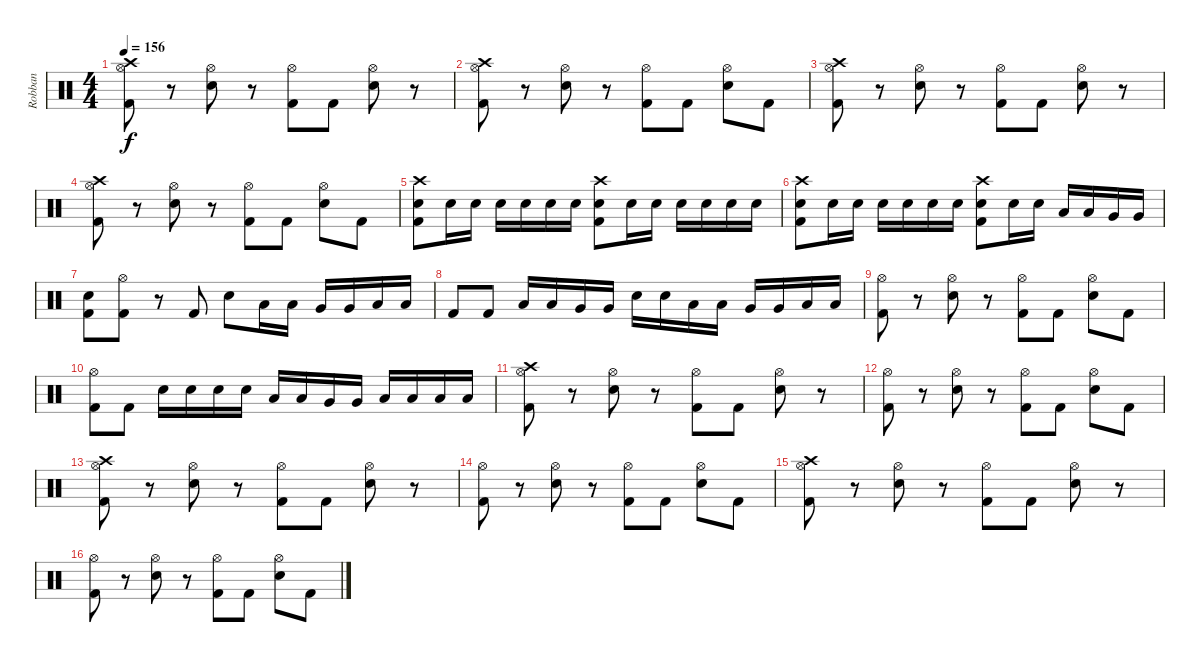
\track ("Robban" "Robban") {instrument percussion}
\staff {score}
\articulation defaults
\ts (4 4)
\tempo 156
\clef neutral
\ks c
("Crash high (hit)" "Hi-Hat (open)" "Kick (hit) 2").8{dy f} r.8 ("Hi-Hat (open)" "Electric Snare (hit)").8 r.8 ("Hi-Hat (open)" "Kick (hit) 2").8 "Kick (hit) 2".8 ("Hi-Hat (open)" "Electric Snare (hit)").8 r.8 |
("Crash high (hit)" "Hi-Hat (open)" "Kick (hit) 2").8 r.8 ("Hi-Hat (open)" "Electric Snare (hit)").8 r.8 ("Hi-Hat (open)" "Kick (hit) 2").8 "Kick (hit) 2".8 ("Hi-Hat (open)" "Electric Snare (hit)").8 "Kick (hit) 2".8 |
("Crash high (hit)" "Hi-Hat (open)" "Kick (hit) 2").8 r.8 ("Hi-Hat (open)" "Electric Snare (hit)").8 r.8 ("Hi-Hat (open)" "Kick (hit) 2").8 "Kick (hit) 2".8 ("Hi-Hat (open)" "Electric Snare (hit)").8 r.8 |
("Crash high (hit)" "Hi-Hat (open)" "Kick (hit) 2").8 r.8 ("Hi-Hat (open)" "Electric Snare (hit)").8 r.8 ("Hi-Hat (open)" "Kick (hit) 2").8 "Kick (hit) 2".8 ("Hi-Hat (open)" "Electric Snare (hit)").8 "Kick (hit) 2".8 |
("Crash high (hit)" "Electric Snare (hit)" "Kick (hit) 2").8 "Electric Snare (hit)".16 "Electric Snare (hit)".16 "Electric Snare (hit)".16 "Electric Snare (hit)".16 "Electric Snare (hit)".16 "Electric Snare (hit)".16 ("Crash high (hit)" "Electric Snare (hit)" "Kick (hit) 2").8 "Electric Snare (hit)".16 "Electric Snare (hit)".16 "Electric Snare (hit)".16 "Electric Snare (hit)".16 "Electric Snare (hit)".16 "Electric Snare (hit)".16 |
("Crash high (hit)" "Electric Snare (hit)" "Kick (hit) 2").8 "Electric Snare (hit)".16 "Electric Snare (hit)".16 "Electric Snare (hit)".16 "Electric Snare (hit)".16 "Electric Snare (hit)".16 "Electric Snare (hit)".16 ("Crash high (hit)" "Electric Snare (hit)" "Kick (hit) 2").8 "Electric Snare (hit)".16 "Electric Snare (hit)".16 "Low Tom (hit)".16 "Low Tom (hit)".16 "Very Low Tom (hit)".16 "Very Low Tom (hit)".16 |
("Electric Snare (hit)" "Kick (hit) 2").8 ("Hi-Hat (open)" "Kick (hit) 2").8 r.8 "Kick (hit) 2".8 "Electric Snare (hit)".8 "Low Tom (hit)".16 "Low Tom (hit)".16 "Very Low Tom (hit)".16 "Very Low Tom (hit)".16 "Low Floor Tom (hit)".16 "Low Floor Tom (hit)".16 |
"Kick (hit) 2".8 "Kick (hit) 2".8 "Low Floor Tom (hit)".16 "Low Floor Tom (hit)".16 "Very Low Tom (hit)".16 "Very Low Tom (hit)".16 "Electric Snare (hit)".16 "Electric Snare (hit)".16 "Low Tom (hit)".16 "Low Tom (hit)".16 "Very Low Tom (hit)".16 "Very Low Tom (hit)".16 "Low Floor Tom (hit)".16 "Low Floor Tom (hit)".16 |
("Hi-Hat (open)" "Kick (hit) 2").8 r.8 ("Hi-Hat (open)" "Electric Snare (hit)").8 r.8 ("Hi-Hat (open)" "Kick (hit) 2").8 "Kick (hit) 2".8 ("Hi-Hat (open)" "Electric Snare (hit)").8 "Kick (hit) 2".8 |
("Hi-Hat (open)" "Kick (hit) 2").8 "Kick (hit) 2".8 "Electric Snare (hit)".16 "Electric Snare (hit)".16 "Electric Snare (hit)".16 "Electric Snare (hit)".16 "Low Tom (hit)".16 "Low Tom (hit)".16 "Very Low Tom (hit)".16 "Very Low Tom (hit)".16 "Low Floor Tom (hit)".16 "Low Floor Tom (hit)".16 "Low Floor Tom (hit)".16 "Low Floor Tom (hit)".16 |
("Crash high (hit)" "Hi-Hat (open)" "Kick (hit) 2").8 r.8 ("Hi-Hat (open)" "Electric Snare (hit)").8 r.8 ("Hi-Hat (open)" "Kick (hit) 2").8 "Kick (hit) 2".8 ("Hi-Hat (open)" "Electric Snare (hit)").8 r.8 |
("Hi-Hat (open)" "Kick (hit) 2").8 r.8 ("Hi-Hat (open)" "Electric Snare (hit)").8 r.8 ("Hi-Hat (open)" "Kick (hit) 2").8 "Kick (hit) 2".8 ("Hi-Hat (open)" "Electric Snare (hit)").8 "Kick (hit) 2".8 |
("Crash high (hit)" "Hi-Hat (open)" "Kick (hit) 2").8 r.8 ("Hi-Hat (open)" "Electric Snare (hit)").8 r.8 ("Hi-Hat (open)" "Kick (hit) 2").8 "Kick (hit) 2".8 ("Hi-Hat (open)" "Electric Snare (hit)").8 r.8 |
("Hi-Hat (open)" "Kick (hit) 2").8 r.8 ("Hi-Hat (open)" "Electric Snare (hit)").8 r.8 ("Hi-Hat (open)" "Kick (hit) 2").8 "Kick (hit) 2".8 ("Hi-Hat (open)" "Electric Snare (hit)").8 "Kick (hit) 2".8 |
("Crash high (hit)" "Hi-Hat (open)" "Kick (hit) 2").8 r.8 ("Hi-Hat (open)" "Electric Snare (hit)").8 r.8 ("Hi-Hat (open)" "Kick (hit) 2").8 "Kick (hit) 2".8 ("Hi-Hat (open)" "Electric Snare (hit)").8 r.8 |
("Hi-Hat (open)" "Kick (hit) 2").8 r.8 ("Hi-Hat (open)" "Electric Snare (hit)").8 r.8 ("Hi-Hat (open)" "Kick (hit) 2").8 "Kick (hit) 2".8 ("Hi-Hat (open)" "Electric Snare (hit)").8 "Kick (hit) 2".8
